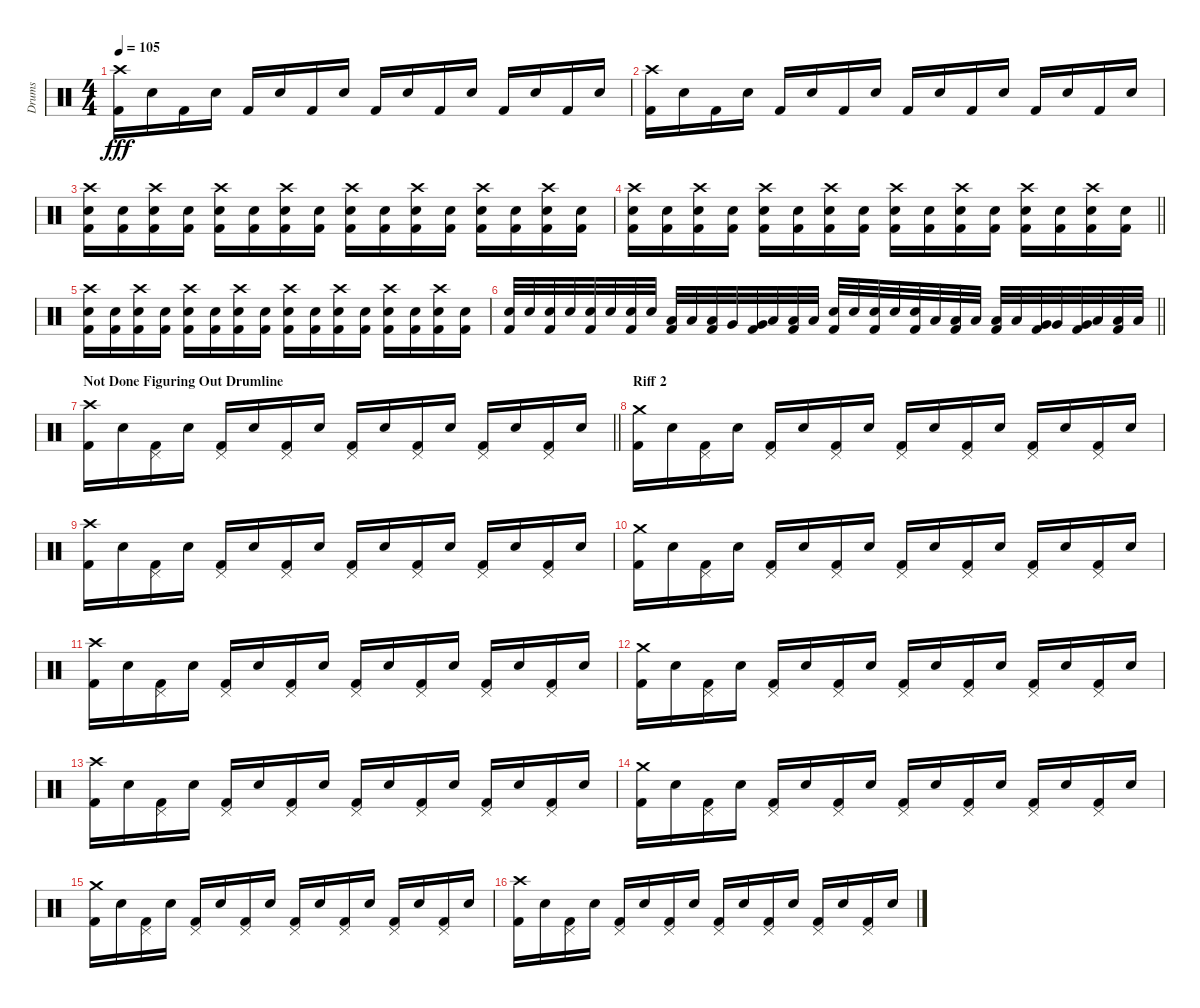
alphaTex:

\track ("Drums" "Drums") {instrument percussion}
\staff {score}
\articulation defaults
\ts (4 4)
\tempo 105
\clef neutral
\ks c
("Crash high (hit)" "Kick (hit) 2").16{dy fff} "Electric Snare (hit)".16 "Kick (hit) 2".16 "Electric Snare (hit)".16 "Kick (hit) 2".16 "Electric Snare (hit)".16 "Kick (hit) 2".16 "Electric Snare (hit)".16 "Kick (hit) 2".16 "Electric Snare (hit)".16 "Kick (hit) 2".16 "Electric Snare (hit)".16 "Kick (hit) 2".16 "Electric Snare (hit)".16 "Kick (hit) 2".16 "Electric Snare (hit)".16 |
("Crash high (hit)" "Kick (hit) 2").16 "Electric Snare (hit)".16 "Kick (hit) 2".16 "Electric Snare (hit)".16 "Kick (hit) 2".16 "Electric Snare (hit)".16 "Kick (hit) 2".16 "Electric Snare (hit)".16 "Kick (hit) 2".16 "Electric Snare (hit)".16 "Kick (hit) 2".16 "Electric Snare (hit)".16 "Kick (hit) 2".16 "Electric Snare (hit)".16 "Kick (hit) 2".16 "Electric Snare (hit)".16 |
("Crash high (hit)" "Electric Snare (hit)" "Kick (hit) 2").16 ("Electric Snare (hit)" "Kick (hit) 2").16 ("Crash high (hit)" "Electric Snare (hit)" "Kick (hit) 2").16 ("Electric Snare (hit)" "Kick (hit) 2").16 ("Crash high (hit)" "Electric Snare (hit)" "Kick (hit) 2").16 ("Electric Snare (hit)" "Kick (hit) 2").16 ("Crash high (hit)" "Electric Snare (hit)" "Kick (hit) 2").16 ("Electric Snare (hit)" "Kick (hit) 2").16 ("Crash high (hit)" "Electric Snare (hit)" "Kick (hit) 2").16 ("Electric Snare (hit)" "Kick (hit) 2").16 ("Crash high (hit)" "Electric Snare (hit)" "Kick (hit) 2").16 ("Electric Snare (hit)" "Kick (hit) 2").16 ("Crash high (hit)" "Electric Snare (hit)" "Kick (hit) 2").16 ("Electric Snare (hit)" "Kick (hit) 2").16 ("Crash high (hit)" "Electric Snare (hit)" "Kick (hit) 2").16 ("Electric Snare (hit)" "Kick (hit) 2").16 |
\barLineRight lightlight
("Crash high (hit)" "Electric Snare (hit)" "Kick (hit) 2").16 ("Electric Snare (hit)" "Kick (hit) 2").16 ("Crash high (hit)" "Electric Snare (hit)" "Kick (hit) 2").16 ("Electric Snare (hit)" "Kick (hit) 2").16 ("Crash high (hit)" "Electric Snare (hit)" "Kick (hit) 2").16 ("Electric Snare (hit)" "Kick (hit) 2").16 ("Crash high (hit)" "Electric Snare (hit)" "Kick (hit) 2").16 ("Electric Snare (hit)" "Kick (hit) 2").16 ("Crash high (hit)" "Electric Snare (hit)" "Kick (hit) 2").16 ("Electric Snare (hit)" "Kick (hit) 2").16 ("Crash high (hit)" "Electric Snare (hit)" "Kick (hit) 2").16 ("Electric Snare (hit)" "Kick (hit) 2").16 ("Crash high (hit)" "Electric Snare (hit)" "Kick (hit) 2").16 ("Electric Snare (hit)" "Kick (hit) 2").16 ("Crash high (hit)" "Electric Snare (hit)" "Kick (hit) 2").16 ("Electric Snare (hit)" "Kick (hit) 2").16 |
("Crash high (hit)" "Electric Snare (hit)" "Kick (hit) 2").16 ("Electric Snare (hit)" "Kick (hit) 2").16 ("Crash high (hit)" "Electric Snare (hit)" "Kick (hit) 2").16 ("Electric Snare (hit)" "Kick (hit) 2").16 ("Crash high (hit)" "Electric Snare (hit)" "Kick (hit) 2").16 ("Electric Snare (hit)" "Kick (hit) 2").16 ("Crash high (hit)" "Electric Snare (hit)" "Kick (hit) 2").16 ("Electric Snare (hit)" "Kick (hit) 2").16 ("Crash high (hit)" "Electric Snare (hit)" "Kick (hit) 2").16 ("Electric Snare (hit)" "Kick (hit) 2").16 ("Crash high (hit)" "Electric Snare (hit)" "Kick (hit) 2").16 ("Electric Snare (hit)" "Kick (hit) 2").16 ("Crash high (hit)" "Electric Snare (hit)" "Kick (hit) 2").16 ("Electric Snare (hit)" "Kick (hit) 2").16 ("Crash high (hit)" "Electric Snare (hit)" "Kick (hit) 2").16 ("Electric Snare (hit)" "Kick (hit) 2").16 |
\barLineRight lightlight
("Electric Snare (hit)" "Kick (hit) 2").32 "Electric Snare (hit)".32 ("Electric Snare (hit)" "Kick (hit) 2").32 "Electric Snare (hit)".32 ("Electric Snare (hit)" "Kick (hit) 2").32 "Electric Snare (hit)".32 ("Electric Snare (hit)" "Kick (hit) 2").32 "Electric Snare (hit)".32 ("Low Floor Tom (hit)" "Kick (hit) 2").32 "Low Floor Tom (hit)".32 ("Low Floor Tom (hit)" "Kick (hit) 2").32 "Very Low Tom (hit)".32 ("Very Low Tom (hit)" "Kick (hit) 2").32 "Low Tom (hit)".32 ("Low Tom (hit)" "Kick (hit) 2").32 "Low Tom (hit)".32 ("Electric Snare (hit)" "Kick (hit) 2").32 "Electric Snare (hit)".32 ("Electric Snare (hit)" "Kick (hit) 2").32 "Electric Snare (hit)".32 ("Electric Snare (hit)" "Kick (hit) 2").32 "Low Floor Tom (hit)".32 ("Low Floor Tom (hit)" "Kick (hit) 2").32 "Low Floor Tom (hit)".32 ("Low Floor Tom (hit)" "Kick (hit) 2").32 "Low Floor Tom (hit)".32 ("Very Low Tom (hit)" "Kick (hit) 2").32 "Very Low Tom (hit)".32 ("Very Low Tom (hit)" "Kick (hit) 2").32 "Low Tom (hit)".32 ("Low Tom (hit)" "Kick (hit) 2").32 "Low Tom (hit)".32 |
\section ("" "Not Done Figuring Out Drumline")
\barLineRight lightlight
("Crash high (hit)" "Kick (hit) 2").16 "Electric Snare (hit)".16 ("Pedal Hi-Hat (hit)" "Kick (hit) 2").16 "Electric Snare (hit)".16 ("Pedal Hi-Hat (hit)" "Kick (hit) 2").16 "Electric Snare (hit)".16 ("Pedal Hi-Hat (hit)" "Kick (hit) 2").16 "Electric Snare (hit)".16 ("Pedal Hi-Hat (hit)" "Kick (hit) 2").16 "Electric Snare (hit)".16 ("Pedal Hi-Hat (hit)" "Kick (hit) 2").16 "Electric Snare (hit)".16 ("Pedal Hi-Hat (hit)" "Kick (hit) 2").16 "Electric Snare (hit)".16 ("Pedal Hi-Hat (hit)" "Kick (hit) 2").16 "Electric Snare (hit)".16 |
\section ("" "Riff 2")
("Crash medium (hit)" "Kick (hit) 2").16 "Electric Snare (hit)".16 ("Pedal Hi-Hat (hit)" "Kick (hit) 2").16 "Electric Snare (hit)".16 ("Pedal Hi-Hat (hit)" "Kick (hit) 2").16 "Electric Snare (hit)".16 ("Pedal Hi-Hat (hit)" "Kick (hit) 2").16 "Electric Snare (hit)".16 ("Pedal Hi-Hat (hit)" "Kick (hit) 2").16 "Electric Snare (hit)".16 ("Pedal Hi-Hat (hit)" "Kick (hit) 2").16 "Electric Snare (hit)".16 ("Pedal Hi-Hat (hit)" "Kick (hit) 2").16 "Electric Snare (hit)".16 ("Pedal Hi-Hat (hit)" "Kick (hit) 2").16 "Electric Snare (hit)".16 |
("Crash high (hit)" "Kick (hit) 2").16 "Electric Snare (hit)".16 ("Pedal Hi-Hat (hit)" "Kick (hit) 2").16 "Electric Snare (hit)".16 ("Pedal Hi-Hat (hit)" "Kick (hit) 2").16 "Electric Snare (hit)".16 ("Pedal Hi-Hat (hit)" "Kick (hit) 2").16 "Electric Snare (hit)".16 ("Pedal Hi-Hat (hit)" "Kick (hit) 2").16 "Electric Snare (hit)".16 ("Pedal Hi-Hat (hit)" "Kick (hit) 2").16 "Electric Snare (hit)".16 ("Pedal Hi-Hat (hit)" "Kick (hit) 2").16 "Electric Snare (hit)".16 ("Pedal Hi-Hat (hit)" "Kick (hit) 2").16 "Electric Snare (hit)".16 |
("Crash medium (hit)" "Kick (hit) 2").16 "Electric Snare (hit)".16 ("Pedal Hi-Hat (hit)" "Kick (hit) 2").16 "Electric Snare (hit)".16 ("Pedal Hi-Hat (hit)" "Kick (hit) 2").16 "Electric Snare (hit)".16 ("Pedal Hi-Hat (hit)" "Kick (hit) 2").16 "Electric Snare (hit)".16 ("Pedal Hi-Hat (hit)" "Kick (hit) 2").16 "Electric Snare (hit)".16 ("Pedal Hi-Hat (hit)" "Kick (hit) 2").16 "Electric Snare (hit)".16 ("Pedal Hi-Hat (hit)" "Kick (hit) 2").16 "Electric Snare (hit)".16 ("Pedal Hi-Hat (hit)" "Kick (hit) 2").16 "Electric Snare (hit)".16 |
("Crash high (hit)" "Kick (hit) 2").16 "Electric Snare (hit)".16 ("Pedal Hi-Hat (hit)" "Kick (hit) 2").16 "Electric Snare (hit)".16 ("Pedal Hi-Hat (hit)" "Kick (hit) 2").16 "Electric Snare (hit)".16 ("Pedal Hi-Hat (hit)" "Kick (hit) 2").16 "Electric Snare (hit)".16 ("Pedal Hi-Hat (hit)" "Kick (hit) 2").16 "Electric Snare (hit)".16 ("Pedal Hi-Hat (hit)" "Kick (hit) 2").16 "Electric Snare (hit)".16 ("Pedal Hi-Hat (hit)" "Kick (hit) 2").16 "Electric Snare (hit)".16 ("Pedal Hi-Hat (hit)" "Kick (hit) 2").16 "Electric Snare (hit)".16 |
("Crash medium (hit)" "Kick (hit) 2").16 "Electric Snare (hit)".16 ("Pedal Hi-Hat (hit)" "Kick (hit) 2").16 "Electric Snare (hit)".16 ("Pedal Hi-Hat (hit)" "Kick (hit) 2").16 "Electric Snare (hit)".16 ("Pedal Hi-Hat (hit)" "Kick (hit) 2").16 "Electric Snare (hit)".16 ("Pedal Hi-Hat (hit)" "Kick (hit) 2").16 "Electric Snare (hit)".16 ("Pedal Hi-Hat (hit)" "Kick (hit) 2").16 "Electric Snare (hit)".16 ("Pedal Hi-Hat (hit)" "Kick (hit) 2").16 "Electric Snare (hit)".16 ("Pedal Hi-Hat (hit)" "Kick (hit) 2").16 "Electric Snare (hit)".16 |
("Crash high (hit)" "Kick (hit) 2").16 "Electric Snare (hit)".16 ("Pedal Hi-Hat (hit)" "Kick (hit) 2").16 "Electric Snare (hit)".16 ("Pedal Hi-Hat (hit)" "Kick (hit) 2").16 "Electric Snare (hit)".16 ("Pedal Hi-Hat (hit)" "Kick (hit) 2").16 "Electric Snare (hit)".16 ("Pedal Hi-Hat (hit)" "Kick (hit) 2").16 "Electric Snare (hit)".16 ("Pedal Hi-Hat (hit)" "Kick (hit) 2").16 "Electric Snare (hit)".16 ("Pedal Hi-Hat (hit)" "Kick (hit) 2").16 "Electric Snare (hit)".16 ("Pedal Hi-Hat (hit)" "Kick (hit) 2").16 "Electric Snare (hit)".16 |
("Crash medium (hit)" "Kick (hit) 2").16 "Electric Snare (hit)".16 ("Pedal Hi-Hat (hit)" "Kick (hit) 2").16 "Electric Snare (hit)".16 ("Pedal Hi-Hat (hit)" "Kick (hit) 2").16 "Electric Snare (hit)".16 ("Pedal Hi-Hat (hit)" "Kick (hit) 2").16 "Electric Snare (hit)".16 ("Pedal Hi-Hat (hit)" "Kick (hit) 2").16 "Electric Snare (hit)".16 ("Pedal Hi-Hat (hit)" "Kick (hit) 2").16 "Electric Snare (hit)".16 ("Pedal Hi-Hat (hit)" "Kick (hit) 2").16 "Electric Snare (hit)".16 ("Pedal Hi-Hat (hit)" "Kick (hit) 2").16 "Electric Snare (hit)".16 |
("Crash medium (hit)" "Kick (hit) 2").16 "Electric Snare (hit)".16 ("Pedal Hi-Hat (hit)" "Kick (hit) 2").16 "Electric Snare (hit)".16 ("Pedal Hi-Hat (hit)" "Kick (hit) 2").16 "Electric Snare (hit)".16 ("Pedal Hi-Hat (hit)" "Kick (hit) 2").16 "Electric Snare (hit)".16 ("Pedal Hi-Hat (hit)" "Kick (hit) 2").16 "Electric Snare (hit)".16 ("Pedal Hi-Hat (hit)" "Kick (hit) 2").16 "Electric Snare (hit)".16 ("Pedal Hi-Hat (hit)" "Kick (hit) 2").16 "Electric Snare (hit)".16 ("Pedal Hi-Hat (hit)" "Kick (hit) 2").16 "Electric Snare (hit)".16 |
("Crash high (hit)" "Kick (hit) 2").16 "Electric Snare (hit)".16 ("Pedal Hi-Hat (hit)" "Kick (hit) 2").16 "Electric Snare (hit)".16 ("Pedal Hi-Hat (hit)" "Kick (hit) 2").16 "Electric Snare (hit)".16 ("Pedal Hi-Hat (hit)" "Kick (hit) 2").16 "Electric Snare (hit)".16 ("Pedal Hi-Hat (hit)" "Kick (hit) 2").16 "Electric Snare (hit)".16 ("Pedal Hi-Hat (hit)" "Kick (hit) 2").16 "Electric Snare (hit)".16 ("Pedal Hi-Hat (hit)" "Kick (hit) 2").16 "Electric Snare (hit)".16 ("Pedal Hi-Hat (hit)" "Kick (hit) 2").16 "Electric Snare (hit)".16
